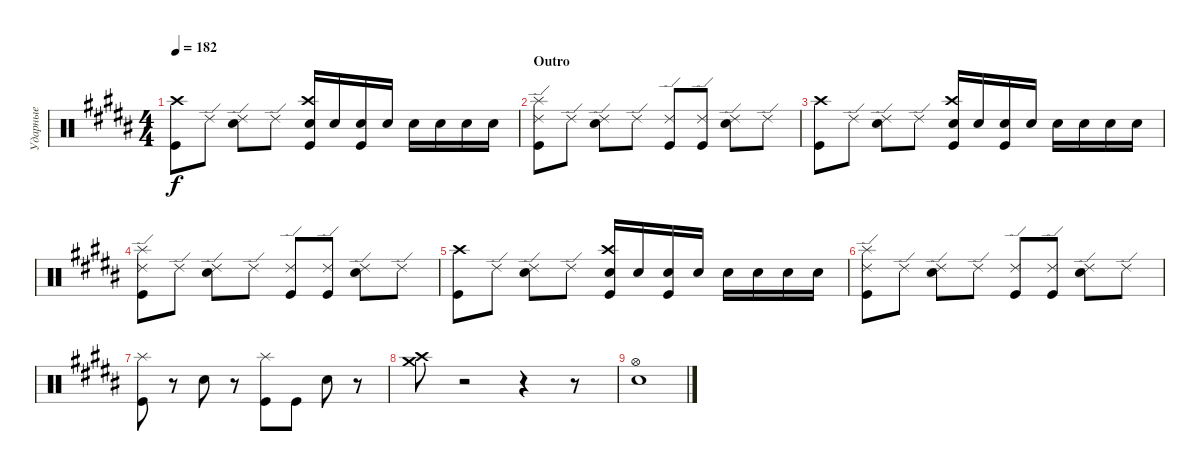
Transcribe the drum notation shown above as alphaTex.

\track ("Ударные" "Ударные") {instrument percussion}
\staff {score}
\articulation defaults
\ts (4 4)
\tempo 182
\clef neutral
\ks b
("Kick (hit)" "Crash high (hit)").8{dy f} "Ride (edge) 2".8 ("Electric Snare (hit)" "Ride (edge) 2").8 "Ride (edge) 2".8 ("Electric Snare (hit)" "Kick (hit)" "Crash high (hit)").16 "Electric Snare (hit)".16 ("Electric Snare (hit)" "Kick (hit)").16 "Electric Snare (hit)".16 "Electric Snare (hit)".16 "Electric Snare (hit)".16 "Electric Snare (hit)".16 "Electric Snare (hit)".16 |
\section ("" "Outro")
("Splash (hit)" "Kick (hit)" "Ride (edge) 2").8 "Ride (edge) 2".8 ("Electric Snare (hit)" "Ride (edge) 2").8 "Ride (edge) 2".8 ("Kick (hit)" "Ride (edge) 2").8 ("Kick (hit)" "Ride (edge) 2").8 ("Electric Snare (hit)" "Ride (edge) 2").8 "Ride (edge) 2".8 |
("Kick (hit)" "Crash high (hit)").8 "Ride (edge) 2".8 ("Electric Snare (hit)" "Ride (edge) 2").8 "Ride (edge) 2".8 ("Electric Snare (hit)" "Kick (hit)" "Crash high (hit)").16 "Electric Snare (hit)".16 ("Electric Snare (hit)" "Kick (hit)").16 "Electric Snare (hit)".16 "Electric Snare (hit)".16 "Electric Snare (hit)".16 "Electric Snare (hit)".16 "Electric Snare (hit)".16 |
("Splash (hit)" "Kick (hit)" "Ride (edge) 2").8 "Ride (edge) 2".8 ("Electric Snare (hit)" "Ride (edge) 2").8 "Ride (edge) 2".8 ("Kick (hit)" "Ride (edge) 2").8 ("Kick (hit)" "Ride (edge) 2").8 ("Electric Snare (hit)" "Ride (edge) 2").8 "Ride (edge) 2".8 |
("Kick (hit)" "Crash high (hit)").8 "Ride (edge) 2".8 ("Electric Snare (hit)" "Ride (edge) 2").8 "Ride (edge) 2".8 ("Electric Snare (hit)" "Kick (hit)" "Crash high (hit)").16 "Electric Snare (hit)".16 ("Electric Snare (hit)" "Kick (hit)").16 "Electric Snare (hit)".16 "Electric Snare (hit)".16 "Electric Snare (hit)".16 "Electric Snare (hit)".16 "Electric Snare (hit)".16 |
("Splash (hit)" "Kick (hit)" "Ride (edge) 2").8 "Ride (edge) 2".8 ("Electric Snare (hit)" "Ride (edge) 2").8 "Ride (edge) 2".8 ("Kick (hit)" "Ride (edge) 2").8 ("Kick (hit)" "Ride (edge) 2").8 ("Electric Snare (hit)" "Ride (edge) 2").8 "Ride (edge) 2".8 |
("Splash (hit)" "Kick (hit)").8 r.8 "Electric Snare (hit)".8 r.8 ("Splash (hit)" "Kick (hit)").8 "Kick (hit)".8 "Electric Snare (hit)".8 r.8 |
("Crash high (hit)" "Crash medium (hit)").8 r.2 r.4 r.8 |
("Electric Snare (hit)" "Hi-Hat (open)").1
